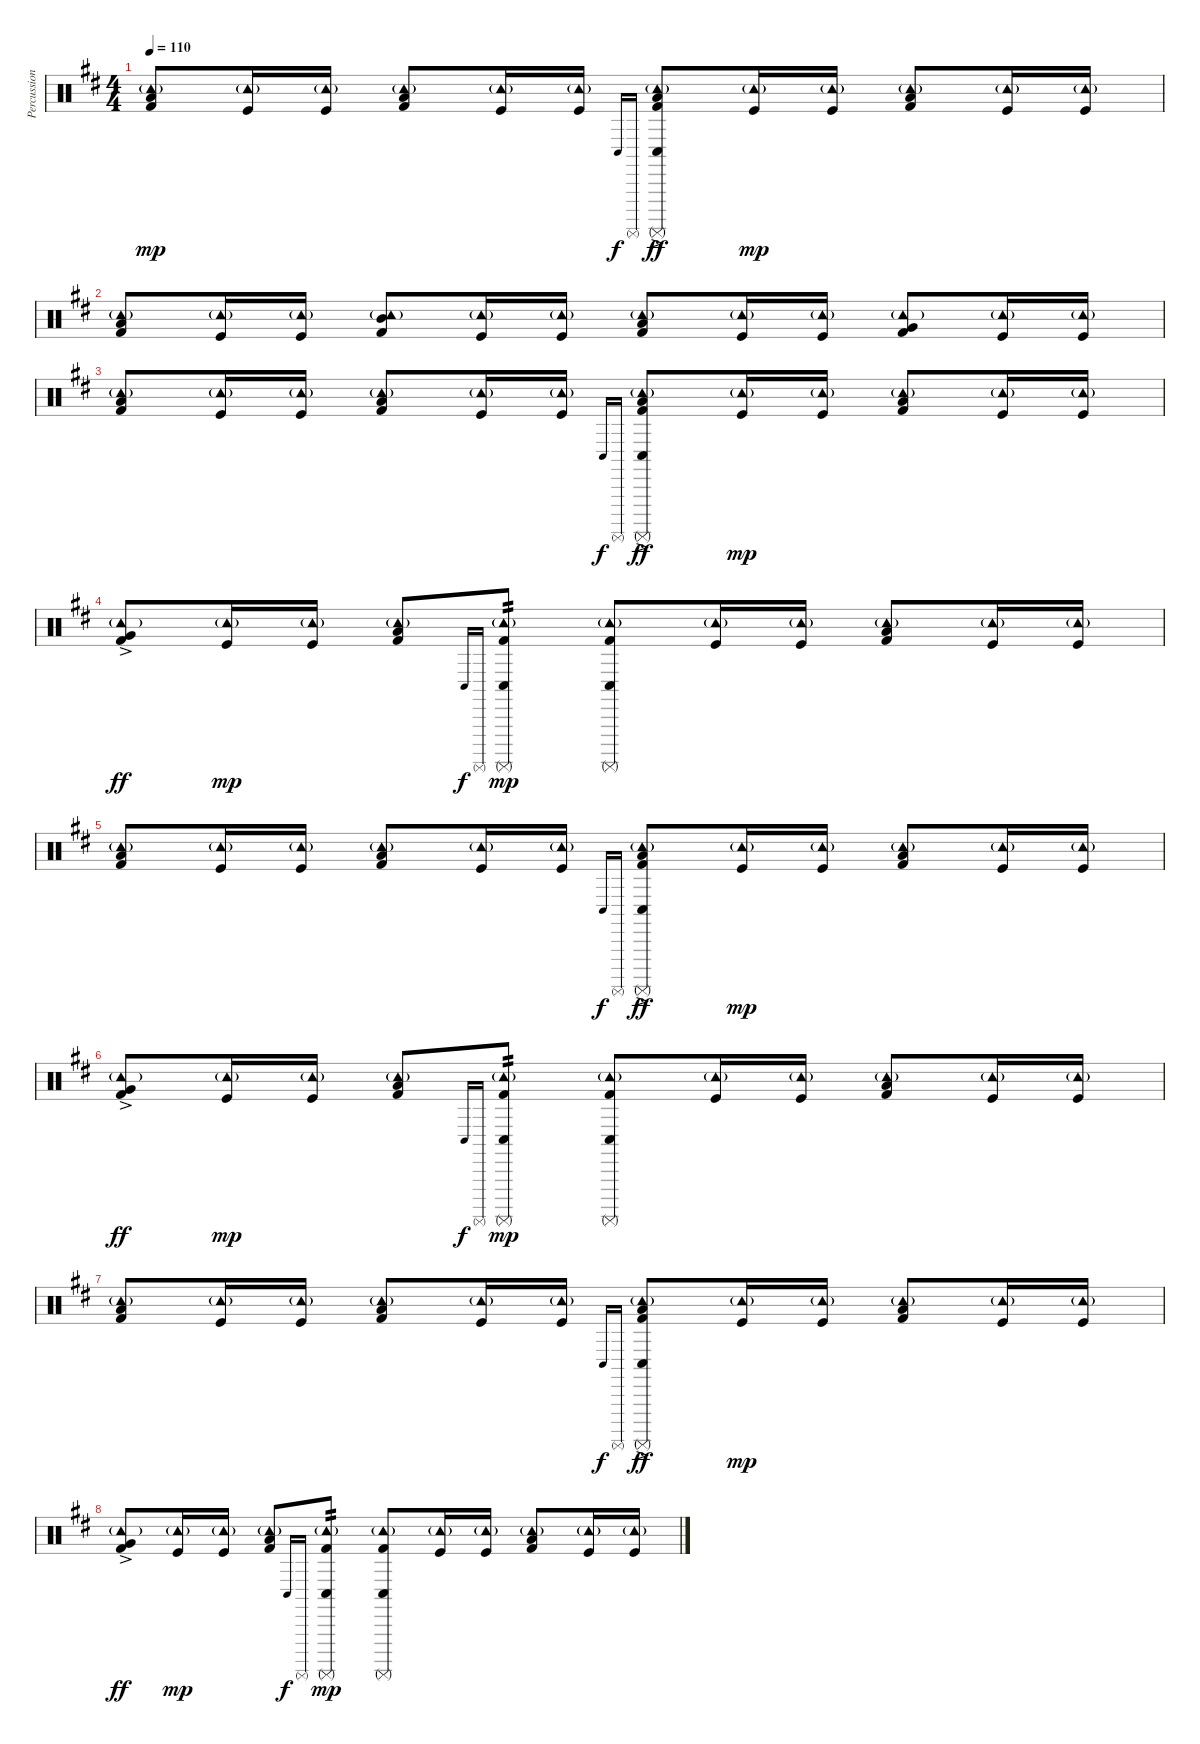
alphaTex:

\track ("Percussion" "Percussion") {instrument percussion}
\staff {score}
\articulation defaults
\ts (4 4)
\tempo 110
\clef neutral
\ks d
("Tambourine (hit)"{g} "Low Floor Tom (hit)" "Kick (hit) 2").8{dy mp} ("Tambourine (hit)"{g} "Kick (hit)").16 ("Tambourine (hit)"{g} "Kick (hit)").16 ("Tambourine (hit)"{g} "Low Tom (hit)" "Kick (hit) 2").8 ("Tambourine (hit)"{g} "Kick (hit)").16 ("Tambourine (hit)"{g} "Kick (hit)").16 "Conga low (hit)".16{gr onbeat dy f} "Surdo (mute)".16{gr onbeat} ("Tambourine (hit)"{g} "Conga low (hit)"{ac} "Surdo (mute)"{ac} "Low Floor Tom (hit)"{ac} "Kick (hit) 2").8{dy ff} ("Tambourine (hit)"{g} "Kick (hit)").16{dy mp} ("Tambourine (hit)"{g} "Kick (hit)").16 ("Tambourine (hit)"{g} "Low Floor Tom (hit)" "Kick (hit) 2").8 ("Tambourine (hit)"{g} "Kick (hit)").16 ("Tambourine (hit)"{g} "Kick (hit)").16 |
("Tambourine (hit)"{g} "Low Floor Tom (hit)" "Kick (hit) 2").8 ("Tambourine (hit)"{g} "Kick (hit)").16 ("Tambourine (hit)"{g} "Kick (hit)").16 ("Tambourine (hit)"{g} "Mid Tom (hit)" "Kick (hit) 2").8 ("Tambourine (hit)"{g} "Kick (hit)").16 ("Tambourine (hit)"{g} "Kick (hit)").16 ("Tambourine (hit)"{g} "Low Tom (hit)" "Kick (hit) 2").8 ("Tambourine (hit)"{g} "Kick (hit)").16 ("Tambourine (hit)"{g} "Kick (hit)").16 ("Tambourine (hit)"{g} "Very Low Tom (hit)" "Kick (hit) 2").8 ("Tambourine (hit)"{g} "Kick (hit)").16 ("Tambourine (hit)"{g} "Kick (hit)").16 |
("Tambourine (hit)"{g} "Low Floor Tom (hit)" "Kick (hit) 2").8 ("Tambourine (hit)"{g} "Kick (hit)").16 ("Tambourine (hit)"{g} "Kick (hit)").16 ("Tambourine (hit)"{g} "Low Tom (hit)" "Kick (hit) 2").8 ("Tambourine (hit)"{g} "Kick (hit)").16 ("Tambourine (hit)"{g} "Kick (hit)").16 "Conga low (hit)".16{gr onbeat dy f} "Surdo (mute)".16{gr onbeat} ("Tambourine (hit)"{g} "Conga low (hit)"{ac} "Surdo (mute)"{ac} "Low Floor Tom (hit)"{ac} "Kick (hit) 2").8{dy ff} ("Tambourine (hit)"{g} "Kick (hit)").16{dy mp} ("Tambourine (hit)"{g} "Kick (hit)").16 ("Tambourine (hit)"{g} "Low Floor Tom (hit)" "Kick (hit) 2").8 ("Tambourine (hit)"{g} "Kick (hit)").16 ("Tambourine (hit)"{g} "Kick (hit)").16 |
("Tambourine (hit)"{g} "Very Low Tom (hit)"{ac} "Kick (hit) 2").8{dy ff} ("Tambourine (hit)"{g} "Kick (hit)").16{dy mp} ("Tambourine (hit)"{g} "Kick (hit)").16 ("Tambourine (hit)"{g} "Low Floor Tom (hit)" "Kick (hit) 2").8 "Conga low (hit)".16{gr onbeat dy f} "Surdo (mute)".16{gr onbeat} ("Tambourine (hit)"{g} "Conga low (hit)" "Surdo (mute)" "Kick (hit) 2").8{tp 2 dy mp} ("Tambourine (hit)"{g} "Conga low (hit)" "Surdo (mute)" "Kick (hit) 2").8 ("Tambourine (hit)"{g} "Kick (hit)").16 ("Tambourine (hit)"{g} "Kick (hit)").16 ("Tambourine (hit)"{g} "Low Floor Tom (hit)" "Kick (hit) 2").8 ("Tambourine (hit)"{g} "Kick (hit)").16 ("Tambourine (hit)"{g} "Kick (hit)").16 |
("Tambourine (hit)"{g} "Low Floor Tom (hit)" "Kick (hit) 2").8 ("Tambourine (hit)"{g} "Kick (hit)").16 ("Tambourine (hit)"{g} "Kick (hit)").16 ("Tambourine (hit)"{g} "Low Tom (hit)" "Kick (hit) 2").8 ("Tambourine (hit)"{g} "Kick (hit)").16 ("Tambourine (hit)"{g} "Kick (hit)").16 "Conga low (hit)".16{gr onbeat dy f} "Surdo (mute)".16{gr onbeat} ("Tambourine (hit)"{g} "Conga low (hit)"{ac} "Surdo (mute)"{ac} "Low Floor Tom (hit)"{ac} "Kick (hit) 2").8{dy ff} ("Tambourine (hit)"{g} "Kick (hit)").16{dy mp} ("Tambourine (hit)"{g} "Kick (hit)").16 ("Tambourine (hit)"{g} "Low Floor Tom (hit)" "Kick (hit) 2").8 ("Tambourine (hit)"{g} "Kick (hit)").16 ("Tambourine (hit)"{g} "Kick (hit)").16 |
("Tambourine (hit)"{g} "Very Low Tom (hit)"{ac} "Kick (hit) 2").8{dy ff} ("Tambourine (hit)"{g} "Kick (hit)").16{dy mp} ("Tambourine (hit)"{g} "Kick (hit)").16 ("Tambourine (hit)"{g} "Low Floor Tom (hit)" "Kick (hit) 2").8 "Conga low (hit)".16{gr onbeat dy f} "Surdo (mute)".16{gr onbeat} ("Tambourine (hit)"{g} "Conga low (hit)" "Surdo (mute)" "Kick (hit) 2").8{tp 2 dy mp} ("Tambourine (hit)"{g} "Conga low (hit)" "Surdo (mute)" "Kick (hit) 2").8 ("Tambourine (hit)"{g} "Kick (hit)").16 ("Tambourine (hit)"{g} "Kick (hit)").16 ("Tambourine (hit)"{g} "Low Floor Tom (hit)" "Kick (hit) 2").8 ("Tambourine (hit)"{g} "Kick (hit)").16 ("Tambourine (hit)"{g} "Kick (hit)").16 |
("Tambourine (hit)"{g} "Low Floor Tom (hit)" "Kick (hit) 2").8 ("Tambourine (hit)"{g} "Kick (hit)").16 ("Tambourine (hit)"{g} "Kick (hit)").16 ("Tambourine (hit)"{g} "Low Tom (hit)" "Kick (hit) 2").8 ("Tambourine (hit)"{g} "Kick (hit)").16 ("Tambourine (hit)"{g} "Kick (hit)").16 "Conga low (hit)".16{gr onbeat dy f} "Surdo (mute)".16{gr onbeat} ("Tambourine (hit)"{g} "Conga low (hit)"{ac} "Surdo (mute)"{ac} "Low Floor Tom (hit)"{ac} "Kick (hit) 2").8{dy ff} ("Tambourine (hit)"{g} "Kick (hit)").16{dy mp} ("Tambourine (hit)"{g} "Kick (hit)").16 ("Tambourine (hit)"{g} "Low Floor Tom (hit)" "Kick (hit) 2").8 ("Tambourine (hit)"{g} "Kick (hit)").16 ("Tambourine (hit)"{g} "Kick (hit)").16 |
("Tambourine (hit)"{g} "Very Low Tom (hit)"{ac} "Kick (hit) 2").8{dy ff} ("Tambourine (hit)"{g} "Kick (hit)").16{dy mp} ("Tambourine (hit)"{g} "Kick (hit)").16 ("Tambourine (hit)"{g} "Low Floor Tom (hit)" "Kick (hit) 2").8 "Conga low (hit)".16{gr onbeat dy f} "Surdo (mute)".16{gr onbeat} ("Tambourine (hit)"{g} "Conga low (hit)" "Surdo (mute)" "Kick (hit) 2").8{tp 2 dy mp} ("Tambourine (hit)"{g} "Conga low (hit)" "Surdo (mute)" "Kick (hit) 2").8 ("Tambourine (hit)"{g} "Kick (hit)").16 ("Tambourine (hit)"{g} "Kick (hit)").16 ("Tambourine (hit)"{g} "Low Floor Tom (hit)" "Kick (hit) 2").8 ("Tambourine (hit)"{g} "Kick (hit)").16 ("Tambourine (hit)"{g} "Kick (hit)").16
